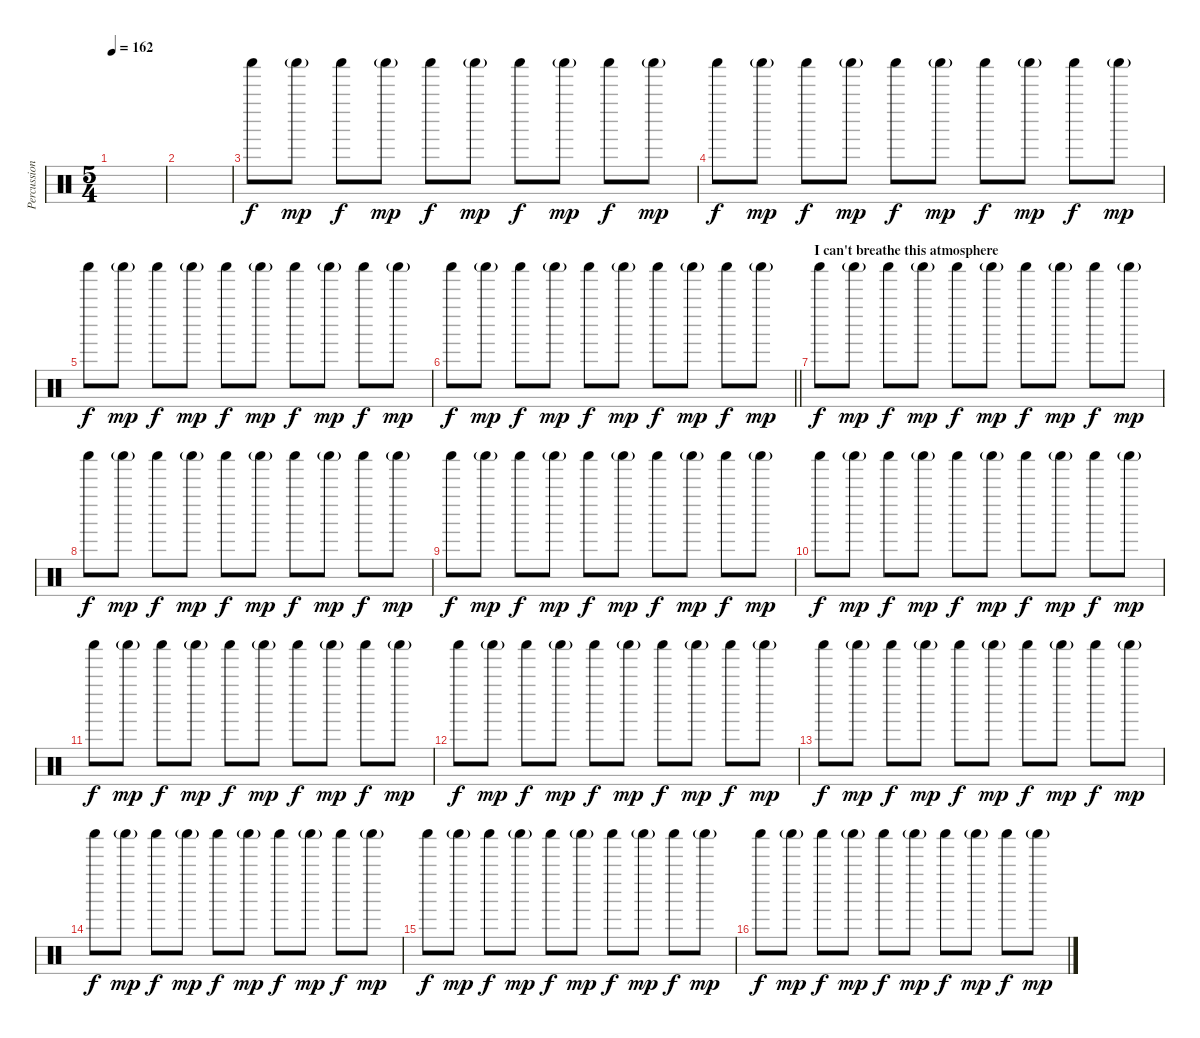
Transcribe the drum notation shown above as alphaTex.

\track ("Percussion" "Percussion") {instrument percussion}
\staff {score}
\articulation defaults
\ts (5 4)
\tempo 162
\clef neutral
\ks c
|
|
"Shaker (hit)".8 "Shaker (hit)"{g}.8{dy mp} "Shaker (hit)".8{dy f} "Shaker (hit)"{g}.8{dy mp} "Shaker (hit)".8{dy f} "Shaker (hit)"{g}.8{dy mp} "Shaker (hit)".8{dy f} "Shaker (hit)"{g}.8{dy mp} "Shaker (hit)".8{dy f} "Shaker (hit)"{g}.8{dy mp} |
"Shaker (hit)".8{dy f} "Shaker (hit)"{g}.8{dy mp} "Shaker (hit)".8{dy f} "Shaker (hit)"{g}.8{dy mp} "Shaker (hit)".8{dy f} "Shaker (hit)"{g}.8{dy mp} "Shaker (hit)".8{dy f} "Shaker (hit)"{g}.8{dy mp} "Shaker (hit)".8{dy f} "Shaker (hit)"{g}.8{dy mp} |
"Shaker (hit)".8{dy f} "Shaker (hit)"{g}.8{dy mp} "Shaker (hit)".8{dy f} "Shaker (hit)"{g}.8{dy mp} "Shaker (hit)".8{dy f} "Shaker (hit)"{g}.8{dy mp} "Shaker (hit)".8{dy f} "Shaker (hit)"{g}.8{dy mp} "Shaker (hit)".8{dy f} "Shaker (hit)"{g}.8{dy mp} |
\barLineRight lightlight "Shaker (hit)".8{dy f} "Shaker (hit)"{g}.8{dy mp} "Shaker (hit)".8{dy f} "Shaker (hit)"{g}.8{dy mp} "Shaker (hit)".8{dy f} "Shaker (hit)"{g}.8{dy mp} "Shaker (hit)".8{dy f} "Shaker (hit)"{g}.8{dy mp} "Shaker (hit)".8{dy f} "Shaker (hit)"{g}.8{dy mp}
|
\section ("" "I can't breathe this atmosphere")
"Shaker (hit)".8{dy f} "Shaker (hit)"{g}.8{dy mp} "Shaker (hit)".8{dy f} "Shaker (hit)"{g}.8{dy mp} "Shaker (hit)".8{dy f} "Shaker (hit)"{g}.8{dy mp} "Shaker (hit)".8{dy f} "Shaker (hit)"{g}.8{dy mp} "Shaker (hit)".8{dy f} "Shaker (hit)"{g}.8{dy mp} |
"Shaker (hit)".8{dy f} "Shaker (hit)"{g}.8{dy mp} "Shaker (hit)".8{dy f} "Shaker (hit)"{g}.8{dy mp} "Shaker (hit)".8{dy f} "Shaker (hit)"{g}.8{dy mp} "Shaker (hit)".8{dy f} "Shaker (hit)"{g}.8{dy mp} "Shaker (hit)".8{dy f} "Shaker (hit)"{g}.8{dy mp} |
"Shaker (hit)".8{dy f} "Shaker (hit)"{g}.8{dy mp} "Shaker (hit)".8{dy f} "Shaker (hit)"{g}.8{dy mp} "Shaker (hit)".8{dy f} "Shaker (hit)"{g}.8{dy mp} "Shaker (hit)".8{dy f} "Shaker (hit)"{g}.8{dy mp} "Shaker (hit)".8{dy f} "Shaker (hit)"{g}.8{dy mp} |
"Shaker (hit)".8{dy f} "Shaker (hit)"{g}.8{dy mp} "Shaker (hit)".8{dy f} "Shaker (hit)"{g}.8{dy mp} "Shaker (hit)".8{dy f} "Shaker (hit)"{g}.8{dy mp} "Shaker (hit)".8{dy f} "Shaker (hit)"{g}.8{dy mp} "Shaker (hit)".8{dy f} "Shaker (hit)"{g}.8{dy mp} |
"Shaker (hit)".8{dy f} "Shaker (hit)"{g}.8{dy mp} "Shaker (hit)".8{dy f} "Shaker (hit)"{g}.8{dy mp} "Shaker (hit)".8{dy f} "Shaker (hit)"{g}.8{dy mp} "Shaker (hit)".8{dy f} "Shaker (hit)"{g}.8{dy mp} "Shaker (hit)".8{dy f} "Shaker (hit)"{g}.8{dy mp} |
"Shaker (hit)".8{dy f} "Shaker (hit)"{g}.8{dy mp} "Shaker (hit)".8{dy f} "Shaker (hit)"{g}.8{dy mp} "Shaker (hit)".8{dy f} "Shaker (hit)"{g}.8{dy mp} "Shaker (hit)".8{dy f} "Shaker (hit)"{g}.8{dy mp} "Shaker (hit)".8{dy f} "Shaker (hit)"{g}.8{dy mp} |
"Shaker (hit)".8{dy f} "Shaker (hit)"{g}.8{dy mp} "Shaker (hit)".8{dy f} "Shaker (hit)"{g}.8{dy mp} "Shaker (hit)".8{dy f} "Shaker (hit)"{g}.8{dy mp} "Shaker (hit)".8{dy f} "Shaker (hit)"{g}.8{dy mp} "Shaker (hit)".8{dy f} "Shaker (hit)"{g}.8{dy mp} |
"Shaker (hit)".8{dy f} "Shaker (hit)"{g}.8{dy mp} "Shaker (hit)".8{dy f} "Shaker (hit)"{g}.8{dy mp} "Shaker (hit)".8{dy f} "Shaker (hit)"{g}.8{dy mp} "Shaker (hit)".8{dy f} "Shaker (hit)"{g}.8{dy mp} "Shaker (hit)".8{dy f} "Shaker (hit)"{g}.8{dy mp} |
"Shaker (hit)".8{dy f} "Shaker (hit)"{g}.8{dy mp} "Shaker (hit)".8{dy f} "Shaker (hit)"{g}.8{dy mp} "Shaker (hit)".8{dy f} "Shaker (hit)"{g}.8{dy mp} "Shaker (hit)".8{dy f} "Shaker (hit)"{g}.8{dy mp} "Shaker (hit)".8{dy f} "Shaker (hit)"{g}.8{dy mp} |
"Shaker (hit)".8{dy f} "Shaker (hit)"{g}.8{dy mp} "Shaker (hit)".8{dy f} "Shaker (hit)"{g}.8{dy mp} "Shaker (hit)".8{dy f} "Shaker (hit)"{g}.8{dy mp} "Shaker (hit)".8{dy f} "Shaker (hit)"{g}.8{dy mp} "Shaker (hit)".8{dy f} "Shaker (hit)"{g}.8{dy mp}
